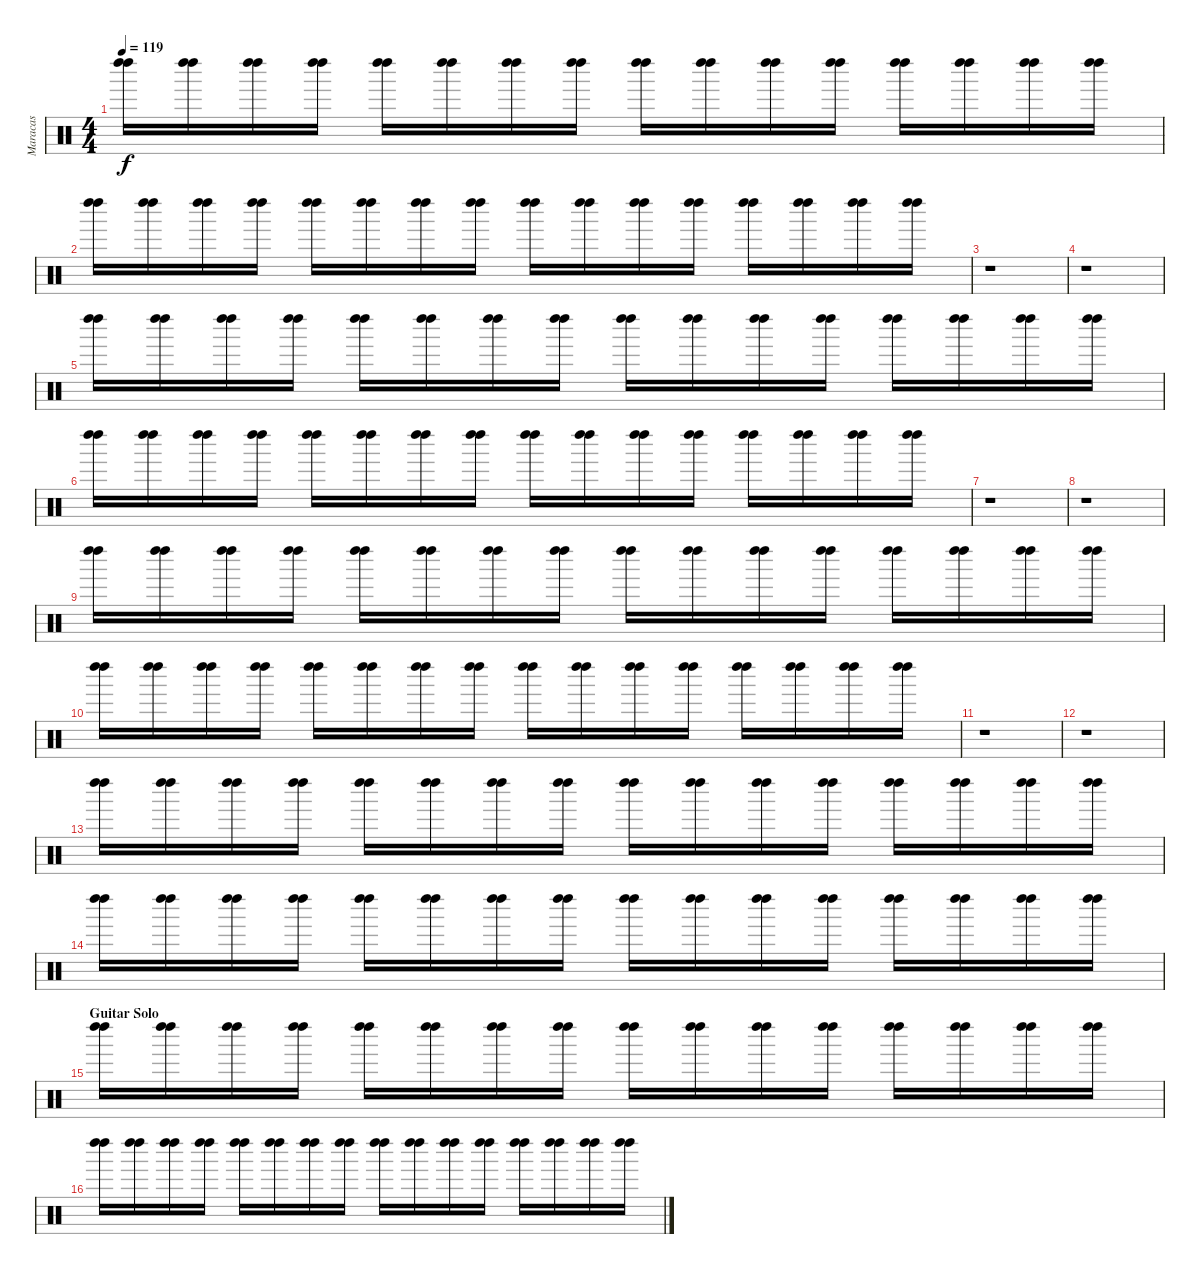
\track ("Maracas" "Maracas") {instrument percussion}
\staff {score}
\articulation defaults
\ts (4 4)
\tempo 119
\clef neutral
\ks c
("Left Maraca (hit)" "Left Maraca (hit)").16{dy f} ("Left Maraca (hit)" "Left Maraca (hit)").16 ("Left Maraca (hit)" "Left Maraca (hit)").16 ("Left Maraca (hit)" "Left Maraca (hit)").16 ("Left Maraca (hit)" "Left Maraca (hit)").16 ("Left Maraca (hit)" "Left Maraca (hit)").16 ("Left Maraca (hit)" "Left Maraca (hit)").16 ("Left Maraca (hit)" "Left Maraca (hit)").16 ("Left Maraca (hit)" "Left Maraca (hit)").16 ("Left Maraca (hit)" "Left Maraca (hit)").16 ("Left Maraca (hit)" "Left Maraca (hit)").16 ("Left Maraca (hit)" "Left Maraca (hit)").16 ("Left Maraca (hit)" "Left Maraca (hit)").16 ("Left Maraca (hit)" "Left Maraca (hit)").16 ("Left Maraca (hit)" "Left Maraca (hit)").16 ("Left Maraca (hit)" "Left Maraca (hit)").16 |
("Left Maraca (hit)" "Left Maraca (hit)").16 ("Left Maraca (hit)" "Left Maraca (hit)").16 ("Left Maraca (hit)" "Left Maraca (hit)").16 ("Left Maraca (hit)" "Left Maraca (hit)").16 ("Left Maraca (hit)" "Left Maraca (hit)").16 ("Left Maraca (hit)" "Left Maraca (hit)").16 ("Left Maraca (hit)" "Left Maraca (hit)").16 ("Left Maraca (hit)" "Left Maraca (hit)").16 ("Left Maraca (hit)" "Left Maraca (hit)").16 ("Left Maraca (hit)" "Left Maraca (hit)").16 ("Left Maraca (hit)" "Left Maraca (hit)").16 ("Left Maraca (hit)" "Left Maraca (hit)").16 ("Left Maraca (hit)" "Left Maraca (hit)").16 ("Left Maraca (hit)" "Left Maraca (hit)").16 ("Left Maraca (hit)" "Left Maraca (hit)").16 ("Left Maraca (hit)" "Left Maraca (hit)").16 |
r.1 |
r.1 |
("Left Maraca (hit)" "Left Maraca (hit)").16 ("Left Maraca (hit)" "Left Maraca (hit)").16 ("Left Maraca (hit)" "Left Maraca (hit)").16 ("Left Maraca (hit)" "Left Maraca (hit)").16 ("Left Maraca (hit)" "Left Maraca (hit)").16 ("Left Maraca (hit)" "Left Maraca (hit)").16 ("Left Maraca (hit)" "Left Maraca (hit)").16 ("Left Maraca (hit)" "Left Maraca (hit)").16 ("Left Maraca (hit)" "Left Maraca (hit)").16 ("Left Maraca (hit)" "Left Maraca (hit)").16 ("Left Maraca (hit)" "Left Maraca (hit)").16 ("Left Maraca (hit)" "Left Maraca (hit)").16 ("Left Maraca (hit)" "Left Maraca (hit)").16 ("Left Maraca (hit)" "Left Maraca (hit)").16 ("Left Maraca (hit)" "Left Maraca (hit)").16 ("Left Maraca (hit)" "Left Maraca (hit)").16 |
("Left Maraca (hit)" "Left Maraca (hit)").16 ("Left Maraca (hit)" "Left Maraca (hit)").16 ("Left Maraca (hit)" "Left Maraca (hit)").16 ("Left Maraca (hit)" "Left Maraca (hit)").16 ("Left Maraca (hit)" "Left Maraca (hit)").16 ("Left Maraca (hit)" "Left Maraca (hit)").16 ("Left Maraca (hit)" "Left Maraca (hit)").16 ("Left Maraca (hit)" "Left Maraca (hit)").16 ("Left Maraca (hit)" "Left Maraca (hit)").16 ("Left Maraca (hit)" "Left Maraca (hit)").16 ("Left Maraca (hit)" "Left Maraca (hit)").16 ("Left Maraca (hit)" "Left Maraca (hit)").16 ("Left Maraca (hit)" "Left Maraca (hit)").16 ("Left Maraca (hit)" "Left Maraca (hit)").16 ("Left Maraca (hit)" "Left Maraca (hit)").16 ("Left Maraca (hit)" "Left Maraca (hit)").16 |
r.1 |
r.1 |
("Left Maraca (hit)" "Left Maraca (hit)").16 ("Left Maraca (hit)" "Left Maraca (hit)").16 ("Left Maraca (hit)" "Left Maraca (hit)").16 ("Left Maraca (hit)" "Left Maraca (hit)").16 ("Left Maraca (hit)" "Left Maraca (hit)").16 ("Left Maraca (hit)" "Left Maraca (hit)").16 ("Left Maraca (hit)" "Left Maraca (hit)").16 ("Left Maraca (hit)" "Left Maraca (hit)").16 ("Left Maraca (hit)" "Left Maraca (hit)").16 ("Left Maraca (hit)" "Left Maraca (hit)").16 ("Left Maraca (hit)" "Left Maraca (hit)").16 ("Left Maraca (hit)" "Left Maraca (hit)").16 ("Left Maraca (hit)" "Left Maraca (hit)").16 ("Left Maraca (hit)" "Left Maraca (hit)").16 ("Left Maraca (hit)" "Left Maraca (hit)").16 ("Left Maraca (hit)" "Left Maraca (hit)").16 |
("Left Maraca (hit)" "Left Maraca (hit)").16 ("Left Maraca (hit)" "Left Maraca (hit)").16 ("Left Maraca (hit)" "Left Maraca (hit)").16 ("Left Maraca (hit)" "Left Maraca (hit)").16 ("Left Maraca (hit)" "Left Maraca (hit)").16 ("Left Maraca (hit)" "Left Maraca (hit)").16 ("Left Maraca (hit)" "Left Maraca (hit)").16 ("Left Maraca (hit)" "Left Maraca (hit)").16 ("Left Maraca (hit)" "Left Maraca (hit)").16 ("Left Maraca (hit)" "Left Maraca (hit)").16 ("Left Maraca (hit)" "Left Maraca (hit)").16 ("Left Maraca (hit)" "Left Maraca (hit)").16 ("Left Maraca (hit)" "Left Maraca (hit)").16 ("Left Maraca (hit)" "Left Maraca (hit)").16 ("Left Maraca (hit)" "Left Maraca (hit)").16 ("Left Maraca (hit)" "Left Maraca (hit)").16 |
r.1 |
r.1 |
("Left Maraca (hit)" "Left Maraca (hit)").16 ("Left Maraca (hit)" "Left Maraca (hit)").16 ("Left Maraca (hit)" "Left Maraca (hit)").16 ("Left Maraca (hit)" "Left Maraca (hit)").16 ("Left Maraca (hit)" "Left Maraca (hit)").16 ("Left Maraca (hit)" "Left Maraca (hit)").16 ("Left Maraca (hit)" "Left Maraca (hit)").16 ("Left Maraca (hit)" "Left Maraca (hit)").16 ("Left Maraca (hit)" "Left Maraca (hit)").16 ("Left Maraca (hit)" "Left Maraca (hit)").16 ("Left Maraca (hit)" "Left Maraca (hit)").16 ("Left Maraca (hit)" "Left Maraca (hit)").16 ("Left Maraca (hit)" "Left Maraca (hit)").16 ("Left Maraca (hit)" "Left Maraca (hit)").16 ("Left Maraca (hit)" "Left Maraca (hit)").16 ("Left Maraca (hit)" "Left Maraca (hit)").16 |
("Left Maraca (hit)" "Left Maraca (hit)").16 ("Left Maraca (hit)" "Left Maraca (hit)").16 ("Left Maraca (hit)" "Left Maraca (hit)").16 ("Left Maraca (hit)" "Left Maraca (hit)").16 ("Left Maraca (hit)" "Left Maraca (hit)").16 ("Left Maraca (hit)" "Left Maraca (hit)").16 ("Left Maraca (hit)" "Left Maraca (hit)").16 ("Left Maraca (hit)" "Left Maraca (hit)").16 ("Left Maraca (hit)" "Left Maraca (hit)").16 ("Left Maraca (hit)" "Left Maraca (hit)").16 ("Left Maraca (hit)" "Left Maraca (hit)").16 ("Left Maraca (hit)" "Left Maraca (hit)").16 ("Left Maraca (hit)" "Left Maraca (hit)").16 ("Left Maraca (hit)" "Left Maraca (hit)").16 ("Left Maraca (hit)" "Left Maraca (hit)").16 ("Left Maraca (hit)" "Left Maraca (hit)").16 |
\section ("" "Guitar Solo")
("Left Maraca (hit)" "Left Maraca (hit)").16 ("Left Maraca (hit)" "Left Maraca (hit)").16 ("Left Maraca (hit)" "Left Maraca (hit)").16 ("Left Maraca (hit)" "Left Maraca (hit)").16 ("Left Maraca (hit)" "Left Maraca (hit)").16 ("Left Maraca (hit)" "Left Maraca (hit)").16 ("Left Maraca (hit)" "Left Maraca (hit)").16 ("Left Maraca (hit)" "Left Maraca (hit)").16 ("Left Maraca (hit)" "Left Maraca (hit)").16 ("Left Maraca (hit)" "Left Maraca (hit)").16 ("Left Maraca (hit)" "Left Maraca (hit)").16 ("Left Maraca (hit)" "Left Maraca (hit)").16 ("Left Maraca (hit)" "Left Maraca (hit)").16 ("Left Maraca (hit)" "Left Maraca (hit)").16 ("Left Maraca (hit)" "Left Maraca (hit)").16 ("Left Maraca (hit)" "Left Maraca (hit)").16 |
("Left Maraca (hit)" "Left Maraca (hit)").16 ("Left Maraca (hit)" "Left Maraca (hit)").16 ("Left Maraca (hit)" "Left Maraca (hit)").16 ("Left Maraca (hit)" "Left Maraca (hit)").16 ("Left Maraca (hit)" "Left Maraca (hit)").16 ("Left Maraca (hit)" "Left Maraca (hit)").16 ("Left Maraca (hit)" "Left Maraca (hit)").16 ("Left Maraca (hit)" "Left Maraca (hit)").16 ("Left Maraca (hit)" "Left Maraca (hit)").16 ("Left Maraca (hit)" "Left Maraca (hit)").16 ("Left Maraca (hit)" "Left Maraca (hit)").16 ("Left Maraca (hit)" "Left Maraca (hit)").16 ("Left Maraca (hit)" "Left Maraca (hit)").16 ("Left Maraca (hit)" "Left Maraca (hit)").16 ("Left Maraca (hit)" "Left Maraca (hit)").16 ("Left Maraca (hit)" "Left Maraca (hit)").16
